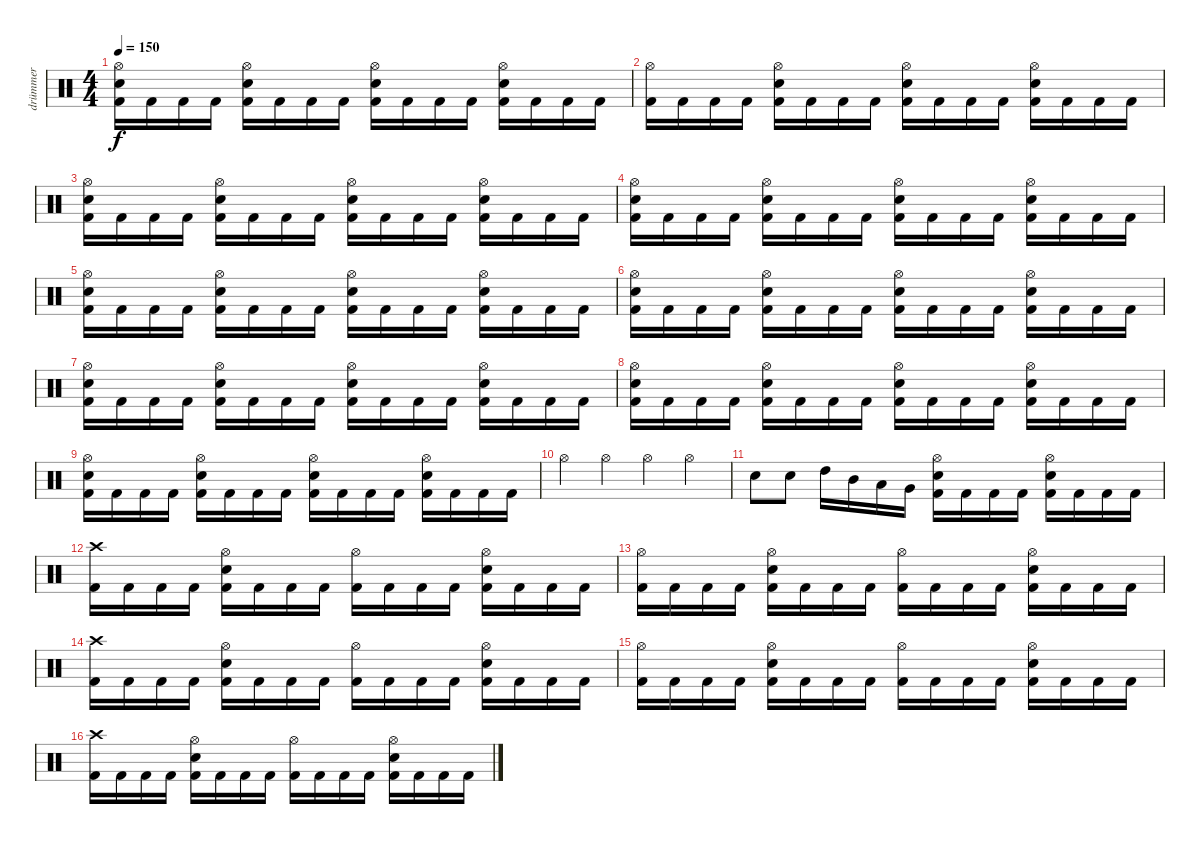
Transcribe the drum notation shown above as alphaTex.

\track ("drümmer" "drümmer") {instrument percussion}
\staff {score}
\articulation defaults
\ts (4 4)
\tempo 150
\clef neutral
\ks c
("Hi-Hat (open)" "Snare (hit) 2" "Kick (hit) 2").16{dy f} "Kick (hit) 2".16 "Kick (hit) 2".16 "Kick (hit) 2".16 ("Hi-Hat (open)" "Snare (hit) 2" "Kick (hit) 2").16 "Kick (hit) 2".16 "Kick (hit) 2".16 "Kick (hit) 2".16 ("Hi-Hat (open)" "Snare (hit) 2" "Kick (hit) 2").16 "Kick (hit) 2".16 "Kick (hit) 2".16 "Kick (hit) 2".16 ("Hi-Hat (open)" "Snare (hit) 2" "Kick (hit) 2").16 "Kick (hit) 2".16 "Kick (hit) 2".16 "Kick (hit) 2".16 |
("Hi-Hat (open)" "Kick (hit) 2").16 "Kick (hit) 2".16 "Kick (hit) 2".16 "Kick (hit) 2".16 ("Hi-Hat (open)" "Snare (hit) 2" "Kick (hit) 2").16 "Kick (hit) 2".16 "Kick (hit) 2".16 "Kick (hit) 2".16 ("Hi-Hat (open)" "Snare (hit) 2" "Kick (hit) 2").16 "Kick (hit) 2".16 "Kick (hit) 2".16 "Kick (hit) 2".16 ("Hi-Hat (open)" "Snare (hit) 2" "Kick (hit) 2").16 "Kick (hit) 2".16 "Kick (hit) 2".16 "Kick (hit) 2".16 |
("Hi-Hat (open)" "Snare (hit) 2" "Kick (hit) 2").16 "Kick (hit) 2".16 "Kick (hit) 2".16 "Kick (hit) 2".16 ("Hi-Hat (open)" "Snare (hit) 2" "Kick (hit) 2").16 "Kick (hit) 2".16 "Kick (hit) 2".16 "Kick (hit) 2".16 ("Hi-Hat (open)" "Snare (hit) 2" "Kick (hit) 2").16 "Kick (hit) 2".16 "Kick (hit) 2".16 "Kick (hit) 2".16 ("Hi-Hat (open)" "Snare (hit) 2" "Kick (hit) 2").16 "Kick (hit) 2".16 "Kick (hit) 2".16 "Kick (hit) 2".16 |
("Hi-Hat (open)" "Snare (hit) 2" "Kick (hit) 2").16 "Kick (hit) 2".16 "Kick (hit) 2".16 "Kick (hit) 2".16 ("Hi-Hat (open)" "Snare (hit) 2" "Kick (hit) 2").16 "Kick (hit) 2".16 "Kick (hit) 2".16 "Kick (hit) 2".16 ("Hi-Hat (open)" "Snare (hit) 2" "Kick (hit) 2").16 "Kick (hit) 2".16 "Kick (hit) 2".16 "Kick (hit) 2".16 ("Hi-Hat (open)" "Snare (hit) 2" "Kick (hit) 2").16 "Kick (hit) 2".16 "Kick (hit) 2".16 "Kick (hit) 2".16 |
("Hi-Hat (open)" "Snare (hit) 2" "Kick (hit) 2").16 "Kick (hit) 2".16 "Kick (hit) 2".16 "Kick (hit) 2".16 ("Hi-Hat (open)" "Snare (hit) 2" "Kick (hit) 2").16 "Kick (hit) 2".16 "Kick (hit) 2".16 "Kick (hit) 2".16 ("Hi-Hat (open)" "Snare (hit) 2" "Kick (hit) 2").16 "Kick (hit) 2".16 "Kick (hit) 2".16 "Kick (hit) 2".16 ("Hi-Hat (open)" "Snare (hit) 2" "Kick (hit) 2").16 "Kick (hit) 2".16 "Kick (hit) 2".16 "Kick (hit) 2".16 |
("Hi-Hat (open)" "Snare (hit) 2" "Kick (hit) 2").16 "Kick (hit) 2".16 "Kick (hit) 2".16 "Kick (hit) 2".16 ("Hi-Hat (open)" "Snare (hit) 2" "Kick (hit) 2").16 "Kick (hit) 2".16 "Kick (hit) 2".16 "Kick (hit) 2".16 ("Hi-Hat (open)" "Snare (hit) 2" "Kick (hit) 2").16 "Kick (hit) 2".16 "Kick (hit) 2".16 "Kick (hit) 2".16 ("Hi-Hat (open)" "Snare (hit) 2" "Kick (hit) 2").16 "Kick (hit) 2".16 "Kick (hit) 2".16 "Kick (hit) 2".16 |
("Hi-Hat (open)" "Snare (hit) 2" "Kick (hit) 2").16 "Kick (hit) 2".16 "Kick (hit) 2".16 "Kick (hit) 2".16 ("Hi-Hat (open)" "Snare (hit) 2" "Kick (hit) 2").16 "Kick (hit) 2".16 "Kick (hit) 2".16 "Kick (hit) 2".16 ("Hi-Hat (open)" "Snare (hit) 2" "Kick (hit) 2").16 "Kick (hit) 2".16 "Kick (hit) 2".16 "Kick (hit) 2".16 ("Hi-Hat (open)" "Snare (hit) 2" "Kick (hit) 2").16 "Kick (hit) 2".16 "Kick (hit) 2".16 "Kick (hit) 2".16 |
("Hi-Hat (open)" "Snare (hit) 2" "Kick (hit) 2").16 "Kick (hit) 2".16 "Kick (hit) 2".16 "Kick (hit) 2".16 ("Hi-Hat (open)" "Snare (hit) 2" "Kick (hit) 2").16 "Kick (hit) 2".16 "Kick (hit) 2".16 "Kick (hit) 2".16 ("Hi-Hat (open)" "Snare (hit) 2" "Kick (hit) 2").16 "Kick (hit) 2".16 "Kick (hit) 2".16 "Kick (hit) 2".16 ("Hi-Hat (open)" "Snare (hit) 2" "Kick (hit) 2").16 "Kick (hit) 2".16 "Kick (hit) 2".16 "Kick (hit) 2".16 |
("Hi-Hat (open)" "Snare (hit) 2" "Kick (hit) 2").16 "Kick (hit) 2".16 "Kick (hit) 2".16 "Kick (hit) 2".16 ("Hi-Hat (open)" "Snare (hit) 2" "Kick (hit) 2").16 "Kick (hit) 2".16 "Kick (hit) 2".16 "Kick (hit) 2".16 ("Hi-Hat (open)" "Snare (hit) 2" "Kick (hit) 2").16 "Kick (hit) 2".16 "Kick (hit) 2".16 "Kick (hit) 2".16 ("Hi-Hat (open)" "Snare (hit) 2" "Kick (hit) 2").16 "Kick (hit) 2".16 "Kick (hit) 2".16 "Kick (hit) 2".16 |
"Hi-Hat (open)".4 "Hi-Hat (open)".4 "Hi-Hat (open)".4 "Hi-Hat (open)".4 |
"Snare (hit) 2".8 "Snare (hit) 2".8 "High Tom (hit)".16 "Mid Tom (hit)".16 "Low Tom (hit)".16 "Very Low Tom (hit)".16 ("Hi-Hat (open)" "Snare (hit) 2" "Kick (hit) 2").16 "Kick (hit) 2".16 "Kick (hit) 2".16 "Kick (hit) 2".16 ("Hi-Hat (open)" "Snare (hit) 2" "Kick (hit) 2").16 "Kick (hit) 2".16 "Kick (hit) 2".16 "Kick (hit) 2".16 |
("Crash high (hit)" "Kick (hit) 2").16 "Kick (hit) 2".16 "Kick (hit) 2".16 "Kick (hit) 2".16 ("Hi-Hat (open)" "Snare (hit) 2" "Kick (hit) 2").16 "Kick (hit) 2".16 "Kick (hit) 2".16 "Kick (hit) 2".16 ("Hi-Hat (open)" "Kick (hit) 2").16 "Kick (hit) 2".16 "Kick (hit) 2".16 "Kick (hit) 2".16 ("Hi-Hat (open)" "Snare (hit) 2" "Kick (hit) 2").16 "Kick (hit) 2".16 "Kick (hit) 2".16 "Kick (hit) 2".16 |
("Hi-Hat (open)" "Kick (hit) 2").16 "Kick (hit) 2".16 "Kick (hit) 2".16 "Kick (hit) 2".16 ("Hi-Hat (open)" "Snare (hit) 2" "Kick (hit) 2").16 "Kick (hit) 2".16 "Kick (hit) 2".16 "Kick (hit) 2".16 ("Hi-Hat (open)" "Kick (hit) 2").16 "Kick (hit) 2".16 "Kick (hit) 2".16 "Kick (hit) 2".16 ("Hi-Hat (open)" "Snare (hit) 2" "Kick (hit) 2").16 "Kick (hit) 2".16 "Kick (hit) 2".16 "Kick (hit) 2".16 |
("Crash high (hit)" "Kick (hit) 2").16 "Kick (hit) 2".16 "Kick (hit) 2".16 "Kick (hit) 2".16 ("Hi-Hat (open)" "Snare (hit) 2" "Kick (hit) 2").16 "Kick (hit) 2".16 "Kick (hit) 2".16 "Kick (hit) 2".16 ("Hi-Hat (open)" "Kick (hit) 2").16 "Kick (hit) 2".16 "Kick (hit) 2".16 "Kick (hit) 2".16 ("Hi-Hat (open)" "Snare (hit) 2" "Kick (hit) 2").16 "Kick (hit) 2".16 "Kick (hit) 2".16 "Kick (hit) 2".16 |
("Hi-Hat (open)" "Kick (hit) 2").16 "Kick (hit) 2".16 "Kick (hit) 2".16 "Kick (hit) 2".16 ("Hi-Hat (open)" "Snare (hit) 2" "Kick (hit) 2").16 "Kick (hit) 2".16 "Kick (hit) 2".16 "Kick (hit) 2".16 ("Hi-Hat (open)" "Kick (hit) 2").16 "Kick (hit) 2".16 "Kick (hit) 2".16 "Kick (hit) 2".16 ("Hi-Hat (open)" "Snare (hit) 2" "Kick (hit) 2").16 "Kick (hit) 2".16 "Kick (hit) 2".16 "Kick (hit) 2".16 |
("Crash high (hit)" "Kick (hit) 2").16 "Kick (hit) 2".16 "Kick (hit) 2".16 "Kick (hit) 2".16 ("Hi-Hat (open)" "Snare (hit) 2" "Kick (hit) 2").16 "Kick (hit) 2".16 "Kick (hit) 2".16 "Kick (hit) 2".16 ("Hi-Hat (open)" "Kick (hit) 2").16 "Kick (hit) 2".16 "Kick (hit) 2".16 "Kick (hit) 2".16 ("Hi-Hat (open)" "Snare (hit) 2" "Kick (hit) 2").16 "Kick (hit) 2".16 "Kick (hit) 2".16 "Kick (hit) 2".16
